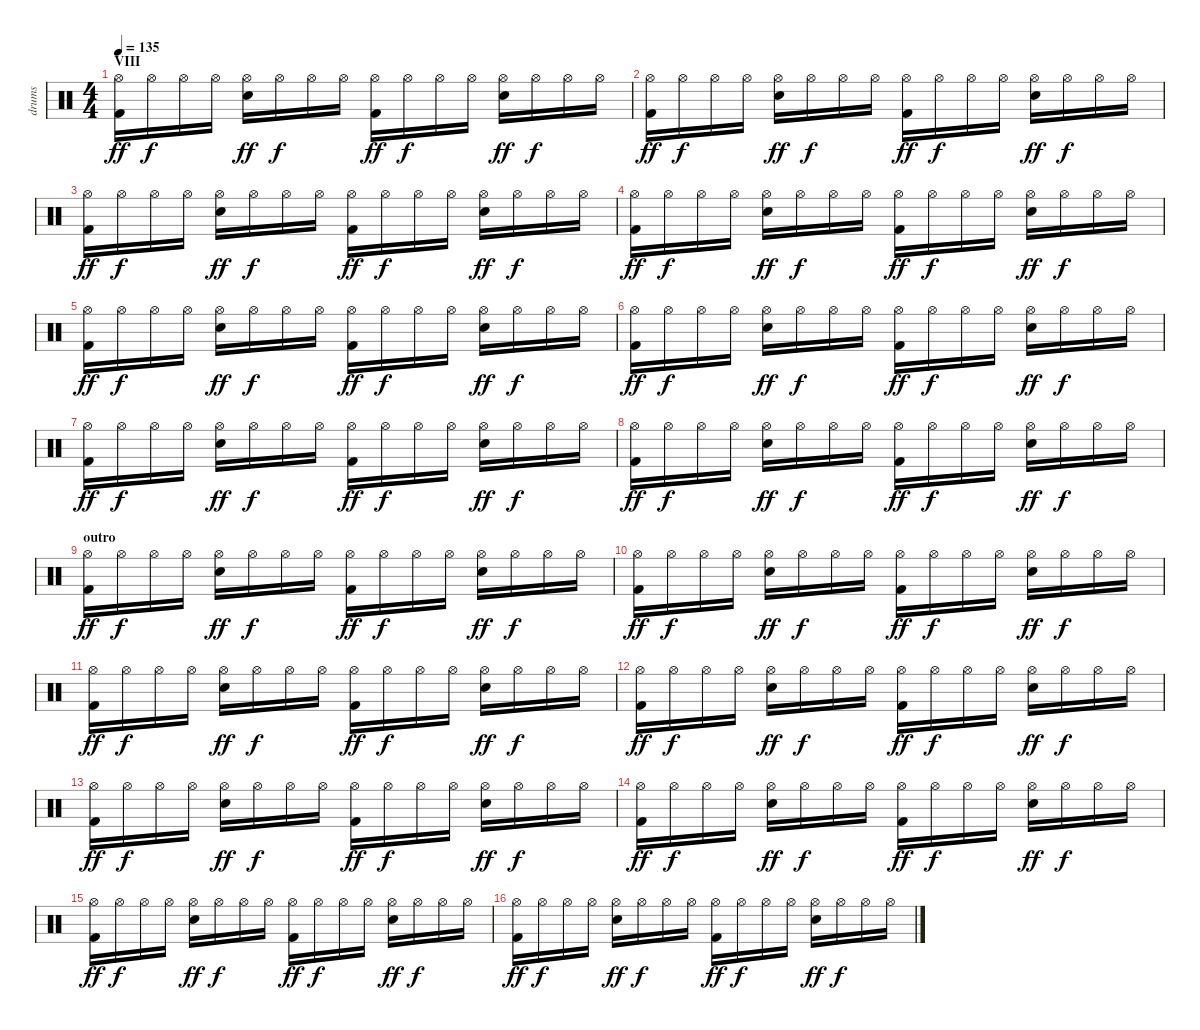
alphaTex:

\track ("drums" "drums") {instrument percussion}
\staff {score}
\articulation defaults
\ts (4 4)
\section ("" "VIII")
\tempo 135
\clef neutral
\ks c
("Hi-Hat (open)" "Kick (hit) 2").16{dy ff} "Hi-Hat (open)".16{dy f} "Hi-Hat (open)".16 "Hi-Hat (open)".16 ("Hi-Hat (open)" "Electric Snare (hit)").16{dy ff} "Hi-Hat (open)".16{dy f} "Hi-Hat (open)".16 "Hi-Hat (open)".16 ("Hi-Hat (open)" "Kick (hit) 2").16{dy ff} "Hi-Hat (open)".16{dy f} "Hi-Hat (open)".16 "Hi-Hat (open)".16 ("Hi-Hat (open)" "Electric Snare (hit)").16{dy ff} "Hi-Hat (open)".16{dy f} "Hi-Hat (open)".16 "Hi-Hat (open)".16 |
("Hi-Hat (open)" "Kick (hit) 2").16{dy ff} "Hi-Hat (open)".16{dy f} "Hi-Hat (open)".16 "Hi-Hat (open)".16 ("Hi-Hat (open)" "Electric Snare (hit)").16{dy ff} "Hi-Hat (open)".16{dy f} "Hi-Hat (open)".16 "Hi-Hat (open)".16 ("Hi-Hat (open)" "Kick (hit) 2").16{dy ff} "Hi-Hat (open)".16{dy f} "Hi-Hat (open)".16 "Hi-Hat (open)".16 ("Hi-Hat (open)" "Electric Snare (hit)").16{dy ff} "Hi-Hat (open)".16{dy f} "Hi-Hat (open)".16 "Hi-Hat (open)".16 |
("Hi-Hat (open)" "Kick (hit) 2").16{dy ff} "Hi-Hat (open)".16{dy f} "Hi-Hat (open)".16 "Hi-Hat (open)".16 ("Hi-Hat (open)" "Electric Snare (hit)").16{dy ff} "Hi-Hat (open)".16{dy f} "Hi-Hat (open)".16 "Hi-Hat (open)".16 ("Hi-Hat (open)" "Kick (hit) 2").16{dy ff} "Hi-Hat (open)".16{dy f} "Hi-Hat (open)".16 "Hi-Hat (open)".16 ("Hi-Hat (open)" "Electric Snare (hit)").16{dy ff} "Hi-Hat (open)".16{dy f} "Hi-Hat (open)".16 "Hi-Hat (open)".16 |
("Hi-Hat (open)" "Kick (hit) 2").16{dy ff} "Hi-Hat (open)".16{dy f} "Hi-Hat (open)".16 "Hi-Hat (open)".16 ("Hi-Hat (open)" "Electric Snare (hit)").16{dy ff} "Hi-Hat (open)".16{dy f} "Hi-Hat (open)".16 "Hi-Hat (open)".16 ("Hi-Hat (open)" "Kick (hit) 2").16{dy ff} "Hi-Hat (open)".16{dy f} "Hi-Hat (open)".16 "Hi-Hat (open)".16 ("Hi-Hat (open)" "Electric Snare (hit)").16{dy ff} "Hi-Hat (open)".16{dy f} "Hi-Hat (open)".16 "Hi-Hat (open)".16 |
("Hi-Hat (open)" "Kick (hit) 2").16{dy ff} "Hi-Hat (open)".16{dy f} "Hi-Hat (open)".16 "Hi-Hat (open)".16 ("Hi-Hat (open)" "Electric Snare (hit)").16{dy ff} "Hi-Hat (open)".16{dy f} "Hi-Hat (open)".16 "Hi-Hat (open)".16 ("Hi-Hat (open)" "Kick (hit) 2").16{dy ff} "Hi-Hat (open)".16{dy f} "Hi-Hat (open)".16 "Hi-Hat (open)".16 ("Hi-Hat (open)" "Electric Snare (hit)").16{dy ff} "Hi-Hat (open)".16{dy f} "Hi-Hat (open)".16 "Hi-Hat (open)".16 |
("Hi-Hat (open)" "Kick (hit) 2").16{dy ff} "Hi-Hat (open)".16{dy f} "Hi-Hat (open)".16 "Hi-Hat (open)".16 ("Hi-Hat (open)" "Electric Snare (hit)").16{dy ff} "Hi-Hat (open)".16{dy f} "Hi-Hat (open)".16 "Hi-Hat (open)".16 ("Hi-Hat (open)" "Kick (hit) 2").16{dy ff} "Hi-Hat (open)".16{dy f} "Hi-Hat (open)".16 "Hi-Hat (open)".16 ("Hi-Hat (open)" "Electric Snare (hit)").16{dy ff} "Hi-Hat (open)".16{dy f} "Hi-Hat (open)".16 "Hi-Hat (open)".16 |
("Hi-Hat (open)" "Kick (hit) 2").16{dy ff} "Hi-Hat (open)".16{dy f} "Hi-Hat (open)".16 "Hi-Hat (open)".16 ("Hi-Hat (open)" "Electric Snare (hit)").16{dy ff} "Hi-Hat (open)".16{dy f} "Hi-Hat (open)".16 "Hi-Hat (open)".16 ("Hi-Hat (open)" "Kick (hit) 2").16{dy ff} "Hi-Hat (open)".16{dy f} "Hi-Hat (open)".16 "Hi-Hat (open)".16 ("Hi-Hat (open)" "Electric Snare (hit)").16{dy ff} "Hi-Hat (open)".16{dy f} "Hi-Hat (open)".16 "Hi-Hat (open)".16 |
("Hi-Hat (open)" "Kick (hit) 2").16{dy ff} "Hi-Hat (open)".16{dy f} "Hi-Hat (open)".16 "Hi-Hat (open)".16 ("Hi-Hat (open)" "Electric Snare (hit)").16{dy ff} "Hi-Hat (open)".16{dy f} "Hi-Hat (open)".16 "Hi-Hat (open)".16 ("Hi-Hat (open)" "Kick (hit) 2").16{dy ff} "Hi-Hat (open)".16{dy f} "Hi-Hat (open)".16 "Hi-Hat (open)".16 ("Hi-Hat (open)" "Electric Snare (hit)").16{dy ff} "Hi-Hat (open)".16{dy f} "Hi-Hat (open)".16 "Hi-Hat (open)".16 |
\section ("" "outro")
("Hi-Hat (open)" "Kick (hit) 2").16{dy ff} "Hi-Hat (open)".16{dy f} "Hi-Hat (open)".16 "Hi-Hat (open)".16 ("Hi-Hat (open)" "Electric Snare (hit)").16{dy ff} "Hi-Hat (open)".16{dy f} "Hi-Hat (open)".16 "Hi-Hat (open)".16 ("Hi-Hat (open)" "Kick (hit) 2").16{dy ff} "Hi-Hat (open)".16{dy f} "Hi-Hat (open)".16 "Hi-Hat (open)".16 ("Hi-Hat (open)" "Electric Snare (hit)").16{dy ff} "Hi-Hat (open)".16{dy f} "Hi-Hat (open)".16 "Hi-Hat (open)".16 |
("Hi-Hat (open)" "Kick (hit) 2").16{dy ff} "Hi-Hat (open)".16{dy f} "Hi-Hat (open)".16 "Hi-Hat (open)".16 ("Hi-Hat (open)" "Electric Snare (hit)").16{dy ff} "Hi-Hat (open)".16{dy f} "Hi-Hat (open)".16 "Hi-Hat (open)".16 ("Hi-Hat (open)" "Kick (hit) 2").16{dy ff} "Hi-Hat (open)".16{dy f} "Hi-Hat (open)".16 "Hi-Hat (open)".16 ("Hi-Hat (open)" "Electric Snare (hit)").16{dy ff} "Hi-Hat (open)".16{dy f} "Hi-Hat (open)".16 "Hi-Hat (open)".16 |
("Hi-Hat (open)" "Kick (hit) 2").16{dy ff} "Hi-Hat (open)".16{dy f} "Hi-Hat (open)".16 "Hi-Hat (open)".16 ("Hi-Hat (open)" "Electric Snare (hit)").16{dy ff} "Hi-Hat (open)".16{dy f} "Hi-Hat (open)".16 "Hi-Hat (open)".16 ("Hi-Hat (open)" "Kick (hit) 2").16{dy ff} "Hi-Hat (open)".16{dy f} "Hi-Hat (open)".16 "Hi-Hat (open)".16 ("Hi-Hat (open)" "Electric Snare (hit)").16{dy ff} "Hi-Hat (open)".16{dy f} "Hi-Hat (open)".16 "Hi-Hat (open)".16 |
("Hi-Hat (open)" "Kick (hit) 2").16{dy ff} "Hi-Hat (open)".16{dy f} "Hi-Hat (open)".16 "Hi-Hat (open)".16 ("Hi-Hat (open)" "Electric Snare (hit)").16{dy ff} "Hi-Hat (open)".16{dy f} "Hi-Hat (open)".16 "Hi-Hat (open)".16 ("Hi-Hat (open)" "Kick (hit) 2").16{dy ff} "Hi-Hat (open)".16{dy f} "Hi-Hat (open)".16 "Hi-Hat (open)".16 ("Hi-Hat (open)" "Electric Snare (hit)").16{dy ff} "Hi-Hat (open)".16{dy f} "Hi-Hat (open)".16 "Hi-Hat (open)".16 |
("Hi-Hat (open)" "Kick (hit) 2").16{dy ff} "Hi-Hat (open)".16{dy f} "Hi-Hat (open)".16 "Hi-Hat (open)".16 ("Hi-Hat (open)" "Electric Snare (hit)").16{dy ff} "Hi-Hat (open)".16{dy f} "Hi-Hat (open)".16 "Hi-Hat (open)".16 ("Hi-Hat (open)" "Kick (hit) 2").16{dy ff} "Hi-Hat (open)".16{dy f} "Hi-Hat (open)".16 "Hi-Hat (open)".16 ("Hi-Hat (open)" "Electric Snare (hit)").16{dy ff} "Hi-Hat (open)".16{dy f} "Hi-Hat (open)".16 "Hi-Hat (open)".16 |
("Hi-Hat (open)" "Kick (hit) 2").16{dy ff} "Hi-Hat (open)".16{dy f} "Hi-Hat (open)".16 "Hi-Hat (open)".16 ("Hi-Hat (open)" "Electric Snare (hit)").16{dy ff} "Hi-Hat (open)".16{dy f} "Hi-Hat (open)".16 "Hi-Hat (open)".16 ("Hi-Hat (open)" "Kick (hit) 2").16{dy ff} "Hi-Hat (open)".16{dy f} "Hi-Hat (open)".16 "Hi-Hat (open)".16 ("Hi-Hat (open)" "Electric Snare (hit)").16{dy ff} "Hi-Hat (open)".16{dy f} "Hi-Hat (open)".16 "Hi-Hat (open)".16 |
("Hi-Hat (open)" "Kick (hit) 2").16{dy ff} "Hi-Hat (open)".16{dy f} "Hi-Hat (open)".16 "Hi-Hat (open)".16 ("Hi-Hat (open)" "Electric Snare (hit)").16{dy ff} "Hi-Hat (open)".16{dy f} "Hi-Hat (open)".16 "Hi-Hat (open)".16 ("Hi-Hat (open)" "Kick (hit) 2").16{dy ff} "Hi-Hat (open)".16{dy f} "Hi-Hat (open)".16 "Hi-Hat (open)".16 ("Hi-Hat (open)" "Electric Snare (hit)").16{dy ff} "Hi-Hat (open)".16{dy f} "Hi-Hat (open)".16 "Hi-Hat (open)".16 |
("Hi-Hat (open)" "Kick (hit) 2").16{dy ff} "Hi-Hat (open)".16{dy f} "Hi-Hat (open)".16 "Hi-Hat (open)".16 ("Hi-Hat (open)" "Electric Snare (hit)").16{dy ff} "Hi-Hat (open)".16{dy f} "Hi-Hat (open)".16 "Hi-Hat (open)".16 ("Hi-Hat (open)" "Kick (hit) 2").16{dy ff} "Hi-Hat (open)".16{dy f} "Hi-Hat (open)".16 "Hi-Hat (open)".16 ("Hi-Hat (open)" "Electric Snare (hit)").16{dy ff} "Hi-Hat (open)".16{dy f} "Hi-Hat (open)".16 "Hi-Hat (open)".16
